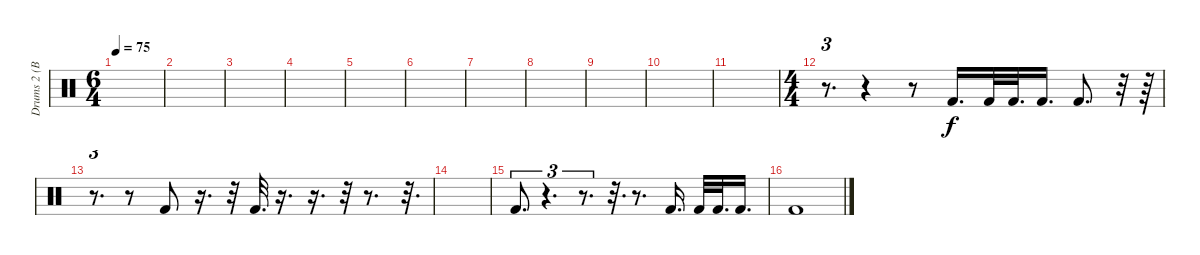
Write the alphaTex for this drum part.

\track ("Drums 2 (Bass Drum)" "Drums 2 (B") {instrument percussion}
\staff {score}
\articulation defaults
\ts (6 4)
\tempo 75
\clef neutral
\ks c
|
|
|
|
|
|
|
|
|
|
|
\ts (4 4)
r.8{d tu (3 2)} r.4 r.8 "Kick (hit) 2".16{d} "Kick (hit) 2".32 "Kick (hit) 2".32{d} "Kick (hit) 2".16{d} "Kick (hit) 2".8{d} r.32 r.64 |
r.8{d tu (3 2)} r.8 "Kick (hit) 2".8 r.16{d} r.32 "Kick (hit) 2".32{d} r.16{d} r.16{d} r.32 r.8{d} r.32{d} |
|
"Kick (hit) 2".8{d tu (3 2)} r.4{d tu (3 2)} r.8{d tu (3 2)} r.32{d} r.8{d} "Kick (hit) 2".16{d} "Kick (hit) 2".32 "Kick (hit) 2".32{d} "Kick (hit) 2".16{d} |
"Kick (hit) 2".1
